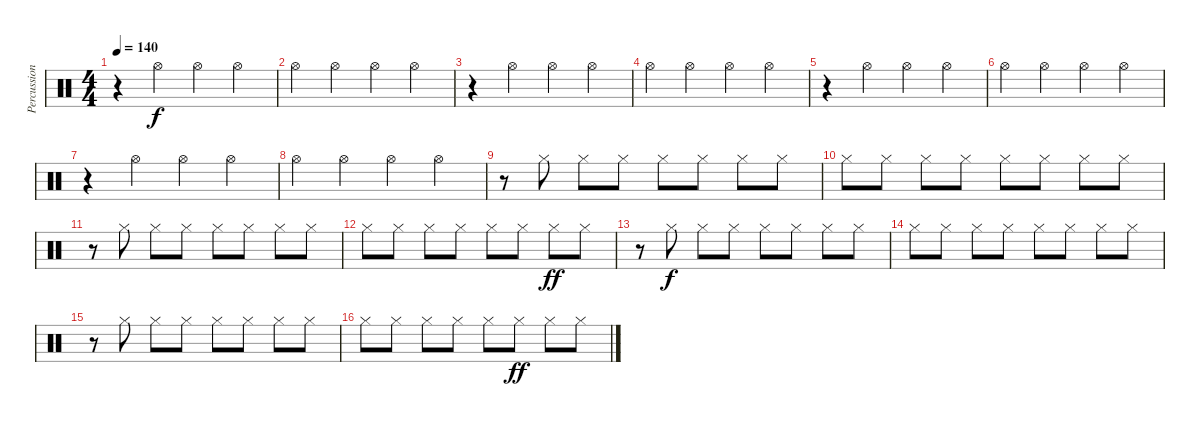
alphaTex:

\track ("Percussion" "Percussion") {instrument percussion}
\staff {score}
\articulation defaults
\ts (4 4)
\tempo 140
\clef neutral
\ks c
r.4{dy f} "Hi-Hat (open)".4 "Hi-Hat (open)".4 "Hi-Hat (open)".4 |
"Hi-Hat (open)".4 "Hi-Hat (open)".4 "Hi-Hat (open)".4 "Hi-Hat (open)".4 |
r.4 "Hi-Hat (open)".4 "Hi-Hat (open)".4 "Hi-Hat (open)".4 |
"Hi-Hat (open)".4 "Hi-Hat (open)".4 "Hi-Hat (open)".4 "Hi-Hat (open)".4 |
r.4 "Hi-Hat (open)".4 "Hi-Hat (open)".4 "Hi-Hat (open)".4 |
"Hi-Hat (open)".4 "Hi-Hat (open)".4 "Hi-Hat (open)".4 "Hi-Hat (open)".4 |
r.4 "Hi-Hat (open)".4 "Hi-Hat (open)".4 "Hi-Hat (open)".4 |
"Hi-Hat (open)".4 "Hi-Hat (open)".4 "Hi-Hat (open)".4 "Hi-Hat (open)".4 |
r.8 "Hi-Hat (closed)".8 "Hi-Hat (closed)".8 "Hi-Hat (closed)".8 "Hi-Hat (closed)".8 "Hi-Hat (closed)".8 "Hi-Hat (closed)".8 "Hi-Hat (closed)".8 |
"Hi-Hat (closed)".8 "Hi-Hat (closed)".8 "Hi-Hat (closed)".8 "Hi-Hat (closed)".8 "Hi-Hat (closed)".8 "Hi-Hat (closed)".8 "Hi-Hat (closed)".8 "Hi-Hat (closed)".8 |
r.8 "Hi-Hat (closed)".8 "Hi-Hat (closed)".8 "Hi-Hat (closed)".8 "Hi-Hat (closed)".8 "Hi-Hat (closed)".8 "Hi-Hat (closed)".8 "Hi-Hat (closed)".8 |
"Hi-Hat (closed)".8 "Hi-Hat (closed)".8 "Hi-Hat (closed)".8 "Hi-Hat (closed)".8 "Hi-Hat (closed)".8 "Hi-Hat (closed)".8 "Hi-Hat (closed)".8{dy ff} "Hi-Hat (closed)".8 |
r.8 "Hi-Hat (closed)".8{dy f} "Hi-Hat (closed)".8 "Hi-Hat (closed)".8 "Hi-Hat (closed)".8 "Hi-Hat (closed)".8 "Hi-Hat (closed)".8 "Hi-Hat (closed)".8 |
"Hi-Hat (closed)".8 "Hi-Hat (closed)".8 "Hi-Hat (closed)".8 "Hi-Hat (closed)".8 "Hi-Hat (closed)".8 "Hi-Hat (closed)".8 "Hi-Hat (closed)".8 "Hi-Hat (closed)".8 |
r.8 "Hi-Hat (closed)".8 "Hi-Hat (closed)".8 "Hi-Hat (closed)".8 "Hi-Hat (closed)".8 "Hi-Hat (closed)".8 "Hi-Hat (closed)".8 "Hi-Hat (closed)".8 |
"Hi-Hat (closed)".8 "Hi-Hat (closed)".8 "Hi-Hat (closed)".8 "Hi-Hat (closed)".8 "Hi-Hat (closed)".8 "Hi-Hat (closed)".8{dy ff} "Hi-Hat (closed)".8 "Hi-Hat (closed)".8
